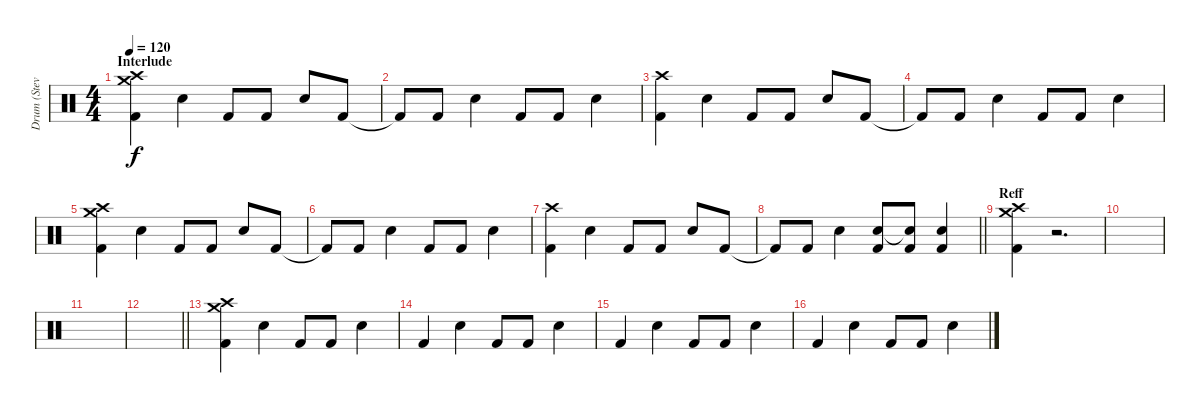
\track ("Drum (Steven)" "Drum (Stev") {instrument percussion}
\staff {score}
\articulation defaults
\ts (4 4)
\section ("" "Interlude")
\tempo 120
\clef neutral
\ks c
("Kick (hit) 2" "Crash high (hit)" "Crash medium (hit)").4{dy f} "Snare (hit) 2".4 "Kick (hit) 2".8 "Kick (hit) 2".8 "Snare (hit) 2".8 "Kick (hit) 2".8 |
"Kick (hit) 2"{t}.8 "Kick (hit) 2".8 "Snare (hit) 2".4 "Kick (hit) 2".8 "Kick (hit) 2".8 "Snare (hit) 2".4 |
("Kick (hit) 2" "Crash high (hit)").4 "Snare (hit) 2".4 "Kick (hit) 2".8 "Kick (hit) 2".8 "Snare (hit) 2".8 "Kick (hit) 2".8 |
"Kick (hit) 2"{t}.8 "Kick (hit) 2".8 "Snare (hit) 2".4 "Kick (hit) 2".8 "Kick (hit) 2".8 "Snare (hit) 2".4 |
("Kick (hit) 2" "Crash high (hit)" "Crash medium (hit)").4 "Snare (hit) 2".4 "Kick (hit) 2".8 "Kick (hit) 2".8 "Snare (hit) 2".8 "Kick (hit) 2".8 |
"Kick (hit) 2"{t}.8 "Kick (hit) 2".8 "Snare (hit) 2".4 "Kick (hit) 2".8 "Kick (hit) 2".8 "Snare (hit) 2".4 |
("Kick (hit) 2" "Crash high (hit)").4 "Snare (hit) 2".4 "Kick (hit) 2".8 "Kick (hit) 2".8 "Snare (hit) 2".8 "Kick (hit) 2".8 |
\barLineRight lightlight "Kick (hit) 2"{t}.8 "Kick (hit) 2".8 "Snare (hit) 2".4
("Snare (hit) 2" "Kick (hit) 2").8 ("Snare (hit) 2"{t} "Kick (hit) 2").8 ("Snare (hit) 2" "Kick (hit) 2").4 |
\section ("" "Reff")
("Kick (hit) 2" "Crash high (hit)" "Crash medium (hit)").4 r.2{d} |
|
|
\barLineRight lightlight
|
("Kick (hit) 2" "Crash high (hit)" "Crash medium (hit)").4 "Snare (hit) 2".4 "Kick (hit) 2".8 "Kick (hit) 2".8 "Snare (hit) 2".4 |
"Kick (hit) 2".4 "Snare (hit) 2".4 "Kick (hit) 2".8 "Kick (hit) 2".8 "Snare (hit) 2".4 |
"Kick (hit) 2".4 "Snare (hit) 2".4 "Kick (hit) 2".8 "Kick (hit) 2".8 "Snare (hit) 2".4 |
"Kick (hit) 2".4 "Snare (hit) 2".4 "Kick (hit) 2".8 "Kick (hit) 2".8 "Snare (hit) 2".4
